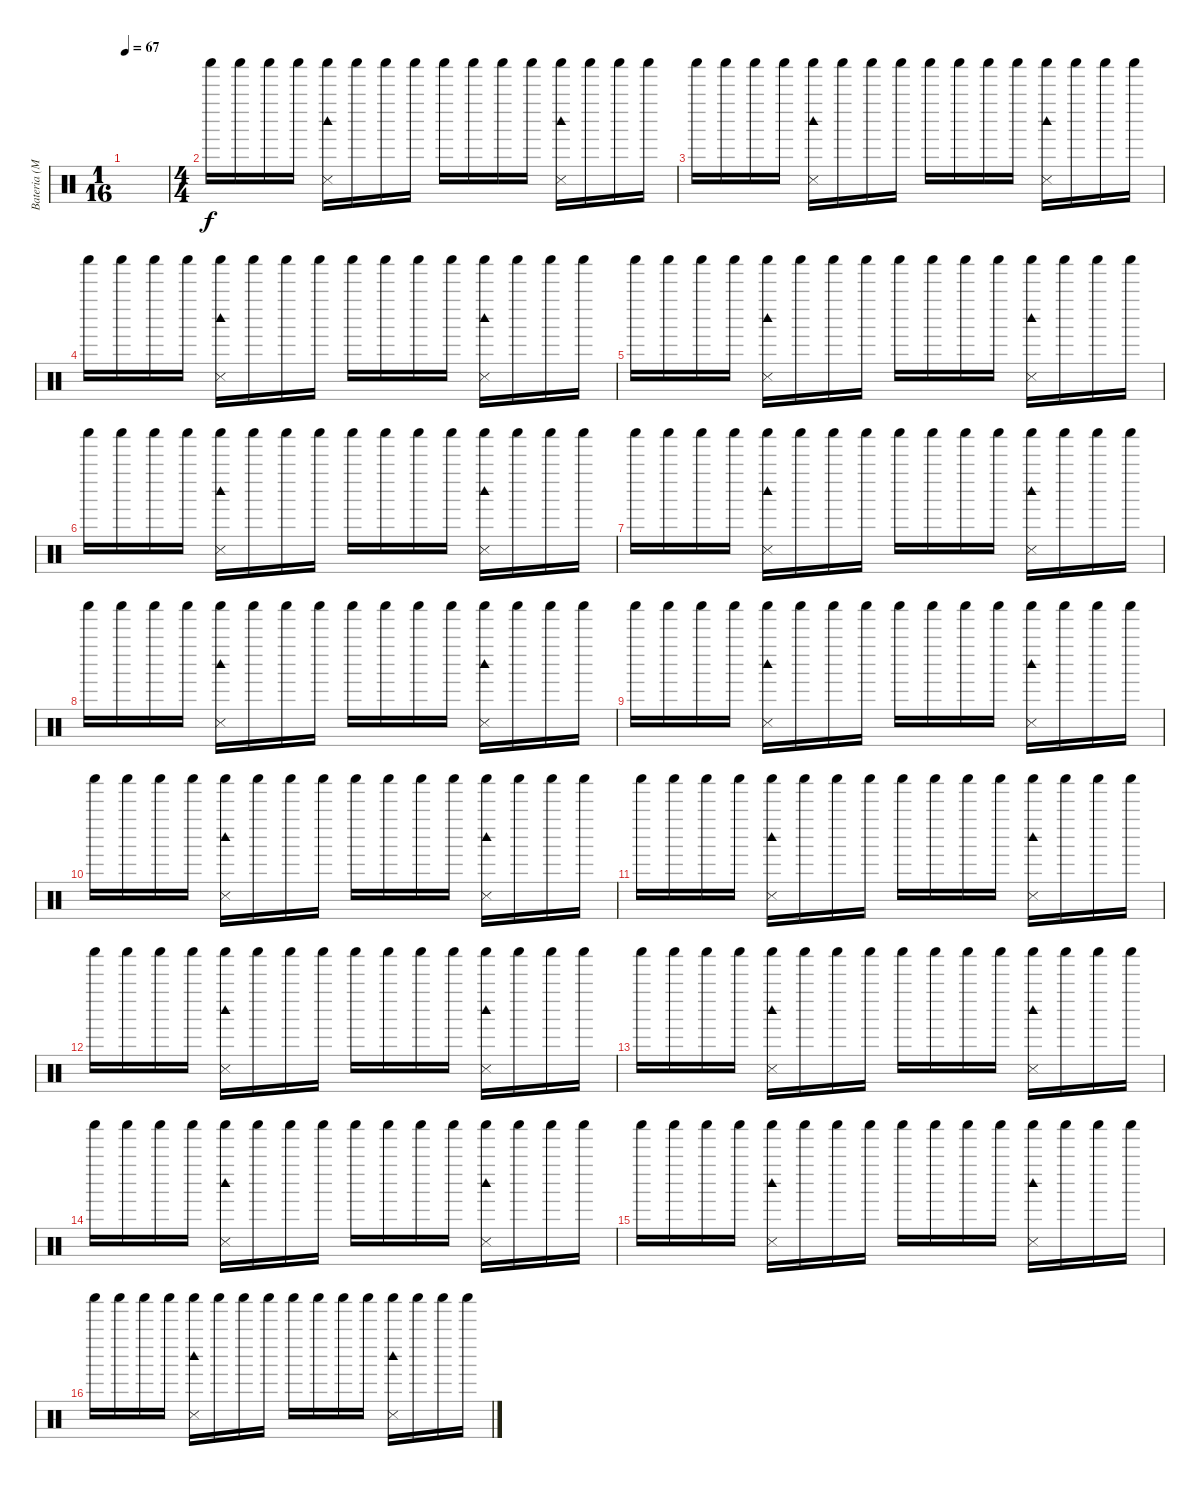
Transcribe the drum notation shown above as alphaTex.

\track ("Bateria (Matt)" "Bateria (M") {instrument percussion}
\staff {score}
\articulation defaults
\ts (1 16)
\tempo 67
\clef neutral
\ks c
|
\ts (4 4)
"Shaker (hit)".16 "Shaker (hit)".16 "Shaker (hit)".16 "Shaker (hit)".16 ("Shaker (hit)" "Metronome (hit)" "Woodblock high (hit)").16 "Shaker (hit)".16 "Shaker (hit)".16 "Shaker (hit)".16 "Shaker (hit)".16 "Shaker (hit)".16 "Shaker (hit)".16 "Shaker (hit)".16 ("Shaker (hit)" "Metronome (hit)" "Woodblock high (hit)").16 "Shaker (hit)".16 "Shaker (hit)".16 "Shaker (hit)".16 |
"Shaker (hit)".16 "Shaker (hit)".16 "Shaker (hit)".16 "Shaker (hit)".16 ("Shaker (hit)" "Metronome (hit)" "Woodblock high (hit)").16 "Shaker (hit)".16 "Shaker (hit)".16 "Shaker (hit)".16 "Shaker (hit)".16 "Shaker (hit)".16 "Shaker (hit)".16 "Shaker (hit)".16 ("Shaker (hit)" "Metronome (hit)" "Woodblock high (hit)").16 "Shaker (hit)".16 "Shaker (hit)".16 "Shaker (hit)".16 |
"Shaker (hit)".16 "Shaker (hit)".16 "Shaker (hit)".16 "Shaker (hit)".16 ("Shaker (hit)" "Metronome (hit)" "Woodblock high (hit)").16 "Shaker (hit)".16 "Shaker (hit)".16 "Shaker (hit)".16 "Shaker (hit)".16 "Shaker (hit)".16 "Shaker (hit)".16 "Shaker (hit)".16 ("Shaker (hit)" "Metronome (hit)" "Woodblock high (hit)").16 "Shaker (hit)".16 "Shaker (hit)".16 "Shaker (hit)".16 |
"Shaker (hit)".16 "Shaker (hit)".16 "Shaker (hit)".16 "Shaker (hit)".16 ("Shaker (hit)" "Metronome (hit)" "Woodblock high (hit)").16 "Shaker (hit)".16 "Shaker (hit)".16 "Shaker (hit)".16 "Shaker (hit)".16 "Shaker (hit)".16 "Shaker (hit)".16 "Shaker (hit)".16 ("Shaker (hit)" "Metronome (hit)" "Woodblock high (hit)").16 "Shaker (hit)".16 "Shaker (hit)".16 "Shaker (hit)".16 |
"Shaker (hit)".16 "Shaker (hit)".16 "Shaker (hit)".16 "Shaker (hit)".16 ("Shaker (hit)" "Metronome (hit)" "Woodblock high (hit)").16 "Shaker (hit)".16 "Shaker (hit)".16 "Shaker (hit)".16 "Shaker (hit)".16 "Shaker (hit)".16 "Shaker (hit)".16 "Shaker (hit)".16 ("Shaker (hit)" "Metronome (hit)" "Woodblock high (hit)").16 "Shaker (hit)".16 "Shaker (hit)".16 "Shaker (hit)".16 |
"Shaker (hit)".16 "Shaker (hit)".16 "Shaker (hit)".16 "Shaker (hit)".16 ("Shaker (hit)" "Metronome (hit)" "Woodblock high (hit)").16 "Shaker (hit)".16 "Shaker (hit)".16 "Shaker (hit)".16 "Shaker (hit)".16 "Shaker (hit)".16 "Shaker (hit)".16 "Shaker (hit)".16 ("Shaker (hit)" "Metronome (hit)" "Woodblock high (hit)").16 "Shaker (hit)".16 "Shaker (hit)".16 "Shaker (hit)".16 |
"Shaker (hit)".16 "Shaker (hit)".16 "Shaker (hit)".16 "Shaker (hit)".16 ("Shaker (hit)" "Metronome (hit)" "Woodblock high (hit)").16 "Shaker (hit)".16 "Shaker (hit)".16 "Shaker (hit)".16 "Shaker (hit)".16 "Shaker (hit)".16 "Shaker (hit)".16 "Shaker (hit)".16 ("Shaker (hit)" "Metronome (hit)" "Woodblock high (hit)").16 "Shaker (hit)".16 "Shaker (hit)".16 "Shaker (hit)".16 |
"Shaker (hit)".16 "Shaker (hit)".16 "Shaker (hit)".16 "Shaker (hit)".16 ("Shaker (hit)" "Metronome (hit)" "Woodblock high (hit)").16 "Shaker (hit)".16 "Shaker (hit)".16 "Shaker (hit)".16 "Shaker (hit)".16 "Shaker (hit)".16 "Shaker (hit)".16 "Shaker (hit)".16 ("Shaker (hit)" "Metronome (hit)" "Woodblock high (hit)").16 "Shaker (hit)".16 "Shaker (hit)".16 "Shaker (hit)".16 |
"Shaker (hit)".16 "Shaker (hit)".16 "Shaker (hit)".16 "Shaker (hit)".16 ("Shaker (hit)" "Metronome (hit)" "Woodblock high (hit)").16 "Shaker (hit)".16 "Shaker (hit)".16 "Shaker (hit)".16 "Shaker (hit)".16 "Shaker (hit)".16 "Shaker (hit)".16 "Shaker (hit)".16 ("Shaker (hit)" "Metronome (hit)" "Woodblock high (hit)").16 "Shaker (hit)".16 "Shaker (hit)".16 "Shaker (hit)".16 |
"Shaker (hit)".16 "Shaker (hit)".16 "Shaker (hit)".16 "Shaker (hit)".16 ("Shaker (hit)" "Metronome (hit)" "Woodblock high (hit)").16 "Shaker (hit)".16 "Shaker (hit)".16 "Shaker (hit)".16 "Shaker (hit)".16 "Shaker (hit)".16 "Shaker (hit)".16 "Shaker (hit)".16 ("Shaker (hit)" "Metronome (hit)" "Woodblock high (hit)").16 "Shaker (hit)".16 "Shaker (hit)".16 "Shaker (hit)".16 |
"Shaker (hit)".16 "Shaker (hit)".16 "Shaker (hit)".16 "Shaker (hit)".16 ("Shaker (hit)" "Metronome (hit)" "Woodblock high (hit)").16 "Shaker (hit)".16 "Shaker (hit)".16 "Shaker (hit)".16 "Shaker (hit)".16 "Shaker (hit)".16 "Shaker (hit)".16 "Shaker (hit)".16 ("Shaker (hit)" "Metronome (hit)" "Woodblock high (hit)").16 "Shaker (hit)".16 "Shaker (hit)".16 "Shaker (hit)".16 |
"Shaker (hit)".16 "Shaker (hit)".16 "Shaker (hit)".16 "Shaker (hit)".16 ("Shaker (hit)" "Metronome (hit)" "Woodblock high (hit)").16 "Shaker (hit)".16 "Shaker (hit)".16 "Shaker (hit)".16 "Shaker (hit)".16 "Shaker (hit)".16 "Shaker (hit)".16 "Shaker (hit)".16 ("Shaker (hit)" "Metronome (hit)" "Woodblock high (hit)").16 "Shaker (hit)".16 "Shaker (hit)".16 "Shaker (hit)".16 |
"Shaker (hit)".16 "Shaker (hit)".16 "Shaker (hit)".16 "Shaker (hit)".16 ("Shaker (hit)" "Metronome (hit)" "Woodblock high (hit)").16 "Shaker (hit)".16 "Shaker (hit)".16 "Shaker (hit)".16 "Shaker (hit)".16 "Shaker (hit)".16 "Shaker (hit)".16 "Shaker (hit)".16 ("Shaker (hit)" "Metronome (hit)" "Woodblock high (hit)").16 "Shaker (hit)".16 "Shaker (hit)".16 "Shaker (hit)".16 |
"Shaker (hit)".16 "Shaker (hit)".16 "Shaker (hit)".16 "Shaker (hit)".16 ("Shaker (hit)" "Metronome (hit)" "Woodblock high (hit)").16 "Shaker (hit)".16 "Shaker (hit)".16 "Shaker (hit)".16 "Shaker (hit)".16 "Shaker (hit)".16 "Shaker (hit)".16 "Shaker (hit)".16 ("Shaker (hit)" "Metronome (hit)" "Woodblock high (hit)").16 "Shaker (hit)".16 "Shaker (hit)".16 "Shaker (hit)".16 |
"Shaker (hit)".16 "Shaker (hit)".16 "Shaker (hit)".16 "Shaker (hit)".16 ("Shaker (hit)" "Metronome (hit)" "Woodblock high (hit)").16 "Shaker (hit)".16 "Shaker (hit)".16 "Shaker (hit)".16 "Shaker (hit)".16 "Shaker (hit)".16 "Shaker (hit)".16 "Shaker (hit)".16 ("Shaker (hit)" "Metronome (hit)" "Woodblock high (hit)").16 "Shaker (hit)".16 "Shaker (hit)".16 "Shaker (hit)".16
